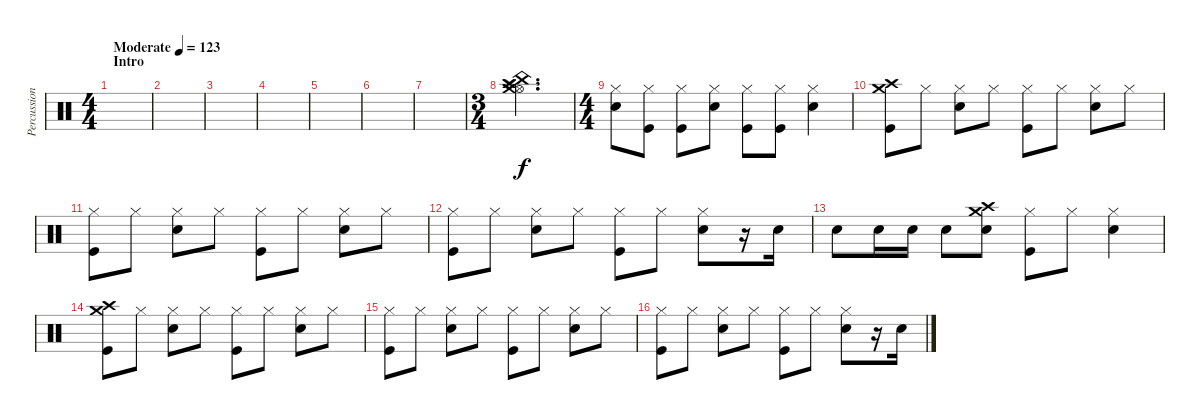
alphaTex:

\track ("Percussion" "Percussion") {instrument percussion}
\staff {score}
\articulation defaults
\ts (4 4)
\section ("" "Intro")
\tempo (123 "Moderate")
\clef neutral
\ks c
|
|
|
|
|
|
|
\ts (3 4)
("Crash high (hit)" "Hi-Hat (open)" "Crash medium (hit)" "Splash (hit)" "China (hit)").2{d} |
\ts (4 4)
("Snare (hit) 2" "Hi-Hat (closed)").8 ("Kick (hit)" "Hi-Hat (closed)").8 ("Kick (hit)" "Hi-Hat (closed)").8 ("Snare (hit) 2" "Hi-Hat (closed)").8 ("Kick (hit)" "Hi-Hat (closed)").8 ("Kick (hit)" "Hi-Hat (closed)").8 ("Snare (hit) 2" "Hi-Hat (closed)").4 |
("Crash high (hit)" "Kick (hit)" "Crash medium (hit)").8 "Hi-Hat (closed)".8 ("Hi-Hat (closed)" "Snare (hit) 2").8 "Hi-Hat (closed)".8 ("Hi-Hat (closed)" "Kick (hit)").8 "Hi-Hat (closed)".8 ("Hi-Hat (closed)" "Snare (hit) 2").8 "Hi-Hat (closed)".8 |
("Hi-Hat (closed)" "Kick (hit)").8 "Hi-Hat (closed)".8 ("Hi-Hat (closed)" "Snare (hit) 2").8 "Hi-Hat (closed)".8 ("Hi-Hat (closed)" "Kick (hit)").8 "Hi-Hat (closed)".8 ("Hi-Hat (closed)" "Snare (hit) 2").8 "Hi-Hat (closed)".8 |
("Hi-Hat (closed)" "Kick (hit)").8 "Hi-Hat (closed)".8 ("Hi-Hat (closed)" "Snare (hit) 2").8 "Hi-Hat (closed)".8 ("Hi-Hat (closed)" "Kick (hit)").8 "Hi-Hat (closed)".8 ("Hi-Hat (closed)" "Snare (hit) 2").8 r.16 "Snare (hit) 2".16 |
"Snare (hit) 2".8 "Snare (hit) 2".16 "Snare (hit) 2".16 "Snare (hit) 2".8 ("Snare (hit) 2" "Crash high (hit)" "Crash medium (hit)").8 ("Hi-Hat (closed)" "Kick (hit)").8 "Hi-Hat (closed)".8 ("Hi-Hat (closed)" "Snare (hit) 2").4 |
("Crash high (hit)" "Kick (hit)" "Crash medium (hit)").8 "Hi-Hat (closed)".8 ("Hi-Hat (closed)" "Snare (hit) 2").8 "Hi-Hat (closed)".8 ("Hi-Hat (closed)" "Kick (hit)").8 "Hi-Hat (closed)".8 ("Hi-Hat (closed)" "Snare (hit) 2").8 "Hi-Hat (closed)".8 |
("Hi-Hat (closed)" "Kick (hit)").8 "Hi-Hat (closed)".8 ("Hi-Hat (closed)" "Snare (hit) 2").8 "Hi-Hat (closed)".8 ("Hi-Hat (closed)" "Kick (hit)").8 "Hi-Hat (closed)".8 ("Hi-Hat (closed)" "Snare (hit) 2").8 "Hi-Hat (closed)".8 |
("Hi-Hat (closed)" "Kick (hit)").8 "Hi-Hat (closed)".8 ("Hi-Hat (closed)" "Snare (hit) 2").8 "Hi-Hat (closed)".8 ("Hi-Hat (closed)" "Kick (hit)").8 "Hi-Hat (closed)".8 ("Hi-Hat (closed)" "Snare (hit) 2").8 r.16 "Snare (hit) 2".16
